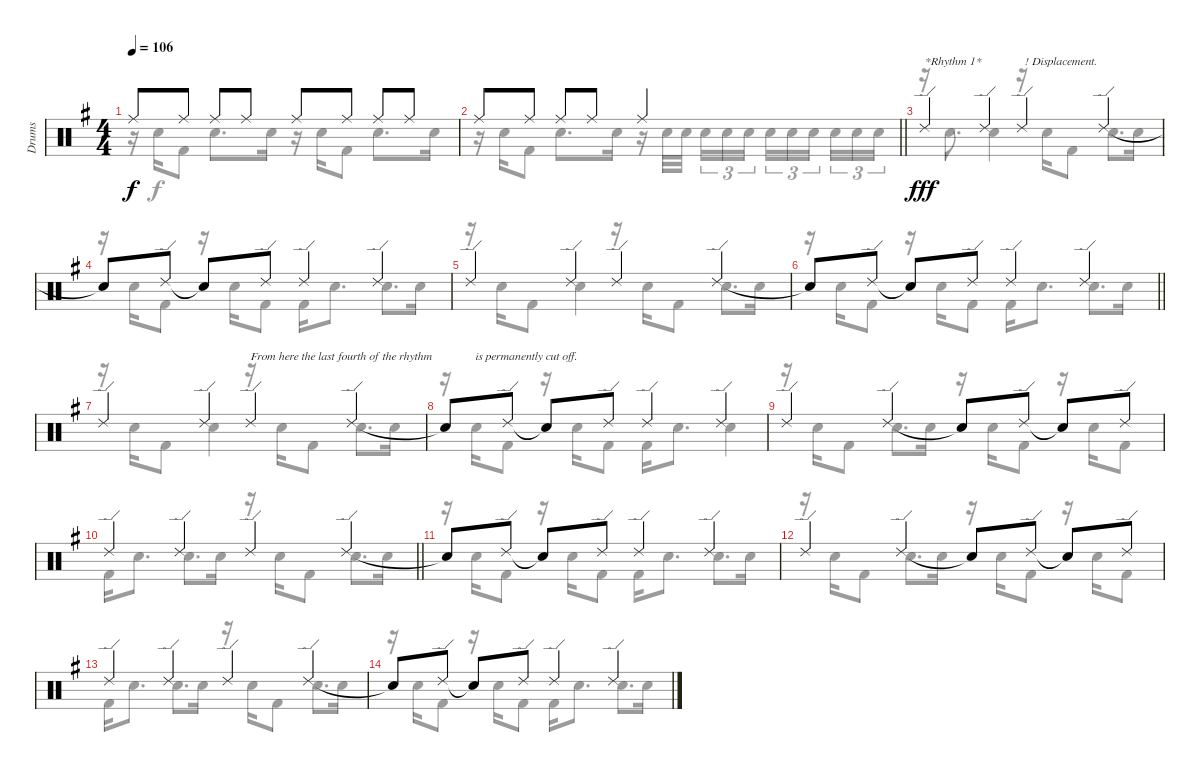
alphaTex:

\track ("Drums" "Drums") {instrument percussion}
\staff {score}
\articulation defaults
\voice
\ts (4 4)
\tempo 106
\clef neutral
\ks eminor "Ride (middle)".8{dy f} "Ride (middle)".8 "Ride (middle)".8 "Ride (middle)".8 "Ride (middle)".8 "Ride (middle)".8 "Ride (middle)".8 "Ride (middle)".8
|
\barLineRight lightlight "Ride (middle)".8 "Ride (middle)".8 "Ride (middle)".8 "Ride (middle)".8 "Ride (middle)".2
|
"Ride (edge) 2".4{txt "*Rhythm 1*" dy fff} "Ride (edge) 2".4 "Ride (edge) 2".4{txt " ! Displacement."} "Ride (edge) 2".4 |
"Snare (hit)"{t}.8 "Ride (edge) 2".8 "Snare (hit)"{t}.8 "Ride (edge) 2".8 "Ride (edge) 2".4 "Ride (edge) 2".4 |
"Ride (edge) 2".4 "Ride (edge) 2".4 "Ride (edge) 2".4 "Ride (edge) 2".4 |
\barLineRight lightlight "Snare (hit)"{t}.8 "Ride (edge) 2".8 "Snare (hit)"{t}.8 "Ride (edge) 2".8 "Ride (edge) 2".4 "Ride (edge) 2".4
|
"Ride (edge) 2".4{volume 3} "Ride (edge) 2".4 "Ride (edge) 2".4{txt "From here the last fourth of the rhythm"} "Ride (edge) 2".4 |
"Snare (hit)"{t}.8{txt "          is permanently cut off."} "Ride (edge) 2".8 "Snare (hit)"{t}.8 "Ride (edge) 2".8 "Ride (edge) 2".4 "Ride (edge) 2".4 |
"Ride (edge) 2".4 "Ride (edge) 2".4 "Snare (hit)"{t}.8 "Ride (edge) 2".8 "Snare (hit)"{t}.8 "Ride (edge) 2".8 |
\barLineRight lightlight "Ride (edge) 2".4 "Ride (edge) 2".4 "Ride (edge) 2".4 "Ride (edge) 2".4
|
"Snare (hit)"{t}.8{volume 0} "Ride (edge) 2".8 "Snare (hit)"{t}.8 "Ride (edge) 2".8 "Ride (edge) 2".4 "Ride (edge) 2".4 |
"Ride (edge) 2".4 "Ride (edge) 2".4 "Snare (hit)"{t}.8 "Ride (edge) 2".8 "Snare (hit)"{t}.8 "Ride (edge) 2".8 |
"Ride (edge) 2".4 "Ride (edge) 2".4 "Ride (edge) 2".4 "Ride (edge) 2".4 |
"Snare (hit)"{t}.8 "Ride (edge) 2".8 "Snare (hit)"{t}.8 "Ride (edge) 2".8 "Ride (edge) 2".4 "Ride (edge) 2".4
\voice
\clef neutral
\ottava regular
\simile none
\ks eminor
r.16{dy f} "Electric Snare (hit)".16 "Kick (hit) 2".8 "Electric Snare (hit)".8{d} "Electric Snare (hit)".16 r.16 "Electric Snare (hit)".16 "Kick (hit) 2".8 "Electric Snare (hit)".8{d} "Electric Snare (hit)".16 |
\barLineRight lightlight
r.16 "Electric Snare (hit)".16 "Kick (hit) 2".8 "Electric Snare (hit)".8{d} "Electric Snare (hit)".16 r.16 "Electric Snare (hit)".32 "Electric Snare (hit)".32{beam splitsecondary} "Electric Snare (hit)".16{tu (3 2)} "Electric Snare (hit)".16{tu (3 2)} "Electric Snare (hit)".16{tu (3 2)} "Electric Snare (hit)".16{tu (3 2)} "Electric Snare (hit)".16{tu (3 2)} "Electric Snare (hit)".16{tu (3 2) beam splitsecondary} "Electric Snare (hit)".16{tu (3 2)} "Electric Snare (hit)".16{tu (3 2)} "Electric Snare (hit)".16{tu (3 2)} |
r.16 "Electric Snare (hit)".8{d} "Electric Snare (hit)".4 r.16 "Electric Snare (hit)".16 "Kick (hit) 2".8 "Electric Snare (hit)".8{d} "Electric Snare (hit)".16 |
r.16 "Electric Snare (hit)".16 "Kick (hit) 2".8 r.16 "Electric Snare (hit)".16 "Kick (hit) 2".8 "Kick (hit) 2".16 "Electric Snare (hit)".8{d} "Electric Snare (hit)".8{d} "Electric Snare (hit)".16 |
r.16 "Electric Snare (hit)".16 "Kick (hit) 2".8 "Electric Snare (hit)".4 r.16 "Electric Snare (hit)".16 "Kick (hit) 2".8 "Electric Snare (hit)".8{d} "Electric Snare (hit)".16 |
\barLineRight lightlight
r.16 "Electric Snare (hit)".16 "Kick (hit) 2".8 r.16 "Electric Snare (hit)".16 "Kick (hit) 2".8 "Kick (hit) 2".16 "Electric Snare (hit)".8{d} "Electric Snare (hit)".8{d} "Electric Snare (hit)".16 |
r.16 "Electric Snare (hit)".16 "Kick (hit) 2".8 "Electric Snare (hit)".4 r.16 "Electric Snare (hit)".16 "Kick (hit) 2".8 "Electric Snare (hit)".8{d} "Electric Snare (hit)".16 |
r.16 "Electric Snare (hit)".16 "Kick (hit) 2".8 r.16 "Electric Snare (hit)".16 "Kick (hit) 2".8 "Kick (hit) 2".16 "Electric Snare (hit)".8{d} "Electric Snare (hit)".4 |
r.16 "Electric Snare (hit)".16 "Kick (hit) 2".8 "Electric Snare (hit)".8{d} "Electric Snare (hit)".16 r.16 "Electric Snare (hit)".16 "Kick (hit) 2".8 r.16 "Electric Snare (hit)".16 "Kick (hit) 2".8 |
\barLineRight lightlight "Kick (hit) 2".16 "Electric Snare (hit)".8{d} "Electric Snare (hit)".8{d} "Electric Snare (hit)".16
r.16 "Electric Snare (hit)".16 "Kick (hit) 2".8 "Electric Snare (hit)".8{d} "Electric Snare (hit)".16 |
r.16 "Electric Snare (hit)".16 "Kick (hit) 2".8 r.16 "Electric Snare (hit)".16 "Kick (hit) 2".8 "Kick (hit) 2".16 "Electric Snare (hit)".8{d} "Electric Snare (hit)".8{d} "Electric Snare (hit)".16 |
r.16 "Electric Snare (hit)".16 "Kick (hit) 2".8 "Electric Snare (hit)".8{d} "Electric Snare (hit)".16 r.16 "Electric Snare (hit)".16 "Kick (hit) 2".8 r.16 "Electric Snare (hit)".16 "Kick (hit) 2".8 |
"Kick (hit) 2".16 "Electric Snare (hit)".8{d} "Electric Snare (hit)".8{d} "Electric Snare (hit)".16 r.16 "Electric Snare (hit)".16 "Kick (hit) 2".8 "Electric Snare (hit)".8{d} "Electric Snare (hit)".16 |
r.16 "Electric Snare (hit)".16 "Kick (hit) 2".8 r.16 "Electric Snare (hit)".16 "Kick (hit) 2".8 "Kick (hit) 2".16 "Electric Snare (hit)".8{d} "Electric Snare (hit)".8{d} "Electric Snare (hit)".16
